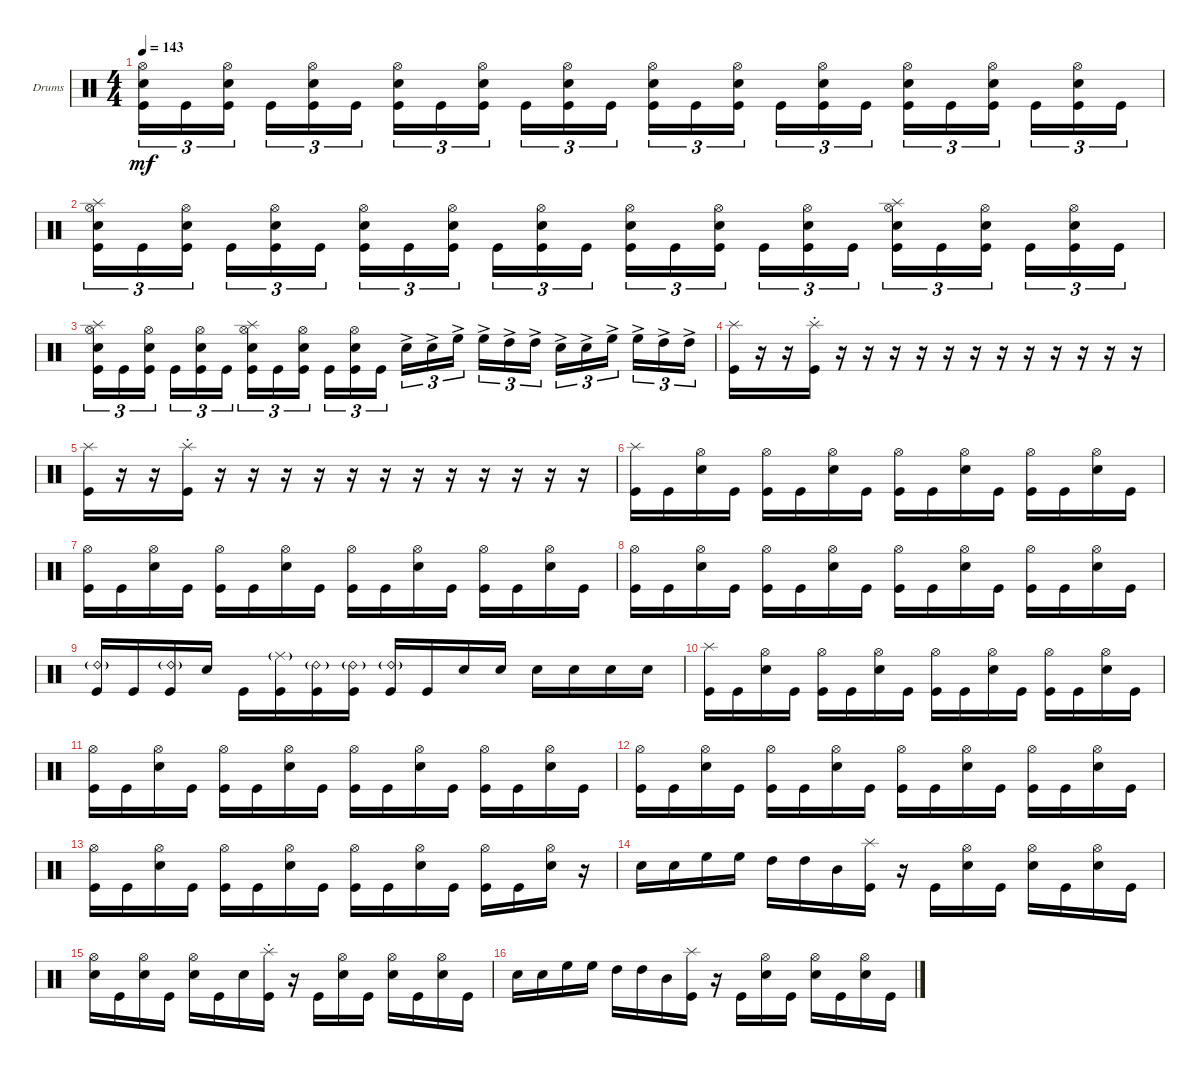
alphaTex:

\bracketExtendMode groupsimilarinstruments
\firstSystemTrackNameOrientation horizontal
\otherSystemsTrackNameOrientation horizontal
\track ("death drumz" "Drums") {instrument percussion}
\staff {score}
\articulation defaults
\ts (4 4)
\tempo 143
\clef neutral
\ks c
("Kick (hit)" "Snare (hit) 2" "Hi-Hat (open)").16{tu (3 2) dy mf} "Kick (hit)".16{tu (3 2)} ("Kick (hit)" "Snare (hit) 2" "Hi-Hat (open)").16{tu (3 2)} "Kick (hit)".16{tu (3 2)} ("Kick (hit)" "Snare (hit) 2" "Hi-Hat (open)").16{tu (3 2)} "Kick (hit)".16{tu (3 2)} ("Kick (hit)" "Snare (hit) 2" "Hi-Hat (open)").16{tu (3 2)} "Kick (hit)".16{tu (3 2)} ("Kick (hit)" "Snare (hit) 2" "Hi-Hat (open)").16{tu (3 2)} "Kick (hit)".16{tu (3 2)} ("Kick (hit)" "Snare (hit) 2" "Hi-Hat (open)").16{tu (3 2)} "Kick (hit)".16{tu (3 2)} ("Kick (hit)" "Snare (hit) 2" "Hi-Hat (open)").16{tu (3 2)} "Kick (hit)".16{tu (3 2)} ("Kick (hit)" "Snare (hit) 2" "Hi-Hat (open)").16{tu (3 2)} "Kick (hit)".16{tu (3 2)} ("Kick (hit)" "Snare (hit) 2" "Hi-Hat (open)").16{tu (3 2)} "Kick (hit)".16{tu (3 2)} ("Kick (hit)" "Snare (hit) 2" "Hi-Hat (open)").16{tu (3 2)} "Kick (hit)".16{tu (3 2)} ("Kick (hit)" "Snare (hit) 2" "Hi-Hat (open)").16{tu (3 2)} "Kick (hit)".16{tu (3 2)} ("Kick (hit)" "Snare (hit) 2" "Hi-Hat (open)").16{tu (3 2)} "Kick (hit)".16{tu (3 2)} |
("Kick (hit)" "Snare (hit) 2" "Hi-Hat (open)" "Splash (hit)").16{tu (3 2)} "Kick (hit)".16{tu (3 2)} ("Kick (hit)" "Snare (hit) 2" "Hi-Hat (open)").16{tu (3 2)} "Kick (hit)".16{tu (3 2)} ("Kick (hit)" "Snare (hit) 2" "Hi-Hat (open)").16{tu (3 2)} "Kick (hit)".16{tu (3 2)} ("Kick (hit)" "Snare (hit) 2" "Hi-Hat (open)").16{tu (3 2)} "Kick (hit)".16{tu (3 2)} ("Kick (hit)" "Snare (hit) 2" "Hi-Hat (open)").16{tu (3 2)} "Kick (hit)".16{tu (3 2)} ("Kick (hit)" "Snare (hit) 2" "Hi-Hat (open)").16{tu (3 2)} "Kick (hit)".16{tu (3 2)} ("Kick (hit)" "Snare (hit) 2" "Hi-Hat (open)").16{tu (3 2)} "Kick (hit)".16{tu (3 2)} ("Kick (hit)" "Snare (hit) 2" "Hi-Hat (open)").16{tu (3 2)} "Kick (hit)".16{tu (3 2)} ("Kick (hit)" "Snare (hit) 2" "Hi-Hat (open)").16{tu (3 2)} "Kick (hit)".16{tu (3 2)} ("Kick (hit)" "Snare (hit) 2" "Hi-Hat (open)" "Splash (hit)").16{tu (3 2)} "Kick (hit)".16{tu (3 2)} ("Kick (hit)" "Snare (hit) 2" "Hi-Hat (open)").16{tu (3 2)} "Kick (hit)".16{tu (3 2)} ("Kick (hit)" "Snare (hit) 2" "Hi-Hat (open)").16{tu (3 2)} "Kick (hit)".16{tu (3 2)} |
("Kick (hit)" "Snare (hit) 2" "Hi-Hat (open)" "Splash (hit)").16{tu (3 2)} "Kick (hit)".16{tu (3 2)} ("Kick (hit)" "Snare (hit) 2" "Hi-Hat (open)").16{tu (3 2)} "Kick (hit)".16{tu (3 2)} ("Kick (hit)" "Snare (hit) 2" "Hi-Hat (open)").16{tu (3 2)} "Kick (hit)".16{tu (3 2)} ("Kick (hit)" "Snare (hit) 2" "Hi-Hat (open)" "Splash (hit)").16{tu (3 2)} "Kick (hit)".16{tu (3 2)} ("Kick (hit)" "Snare (hit) 2" "Hi-Hat (open)").16{tu (3 2)} "Kick (hit)".16{tu (3 2)} ("Kick (hit)" "Snare (hit) 2" "Hi-Hat (open)").16{tu (3 2)} "Kick (hit)".16{tu (3 2)} "Snare (hit) 2"{ac}.16{tu (3 2)} "Snare (hit) 2"{ac}.16{tu (3 2)} "High Floor Tom (hit)"{ac}.16{tu (3 2)} "High Floor Tom (hit)"{ac}.16{tu (3 2)} "High Tom (hit)"{ac}.16{tu (3 2)} "High Tom (hit)"{ac}.16{tu (3 2)} "Snare (hit) 2"{ac}.16{tu (3 2)} "Snare (hit) 2"{ac}.16{tu (3 2)} "High Floor Tom (hit)"{ac}.16{tu (3 2)} "High Floor Tom (hit)"{ac}.16{tu (3 2)} "High Tom (hit)"{ac}.16{tu (3 2)} "High Tom (hit)"{ac}.16{tu (3 2)} |
("Kick (hit)" "Splash (hit)").16 r.16 r.16 ("Kick (hit)" "Splash (hit)"{st}).16 r.16 r.16 r.16 r.16 r.16 r.16 r.16 r.16 r.16 r.16 r.16 r.16 |
("Kick (hit)" "Splash (hit)").16 r.16 r.16 ("Kick (hit)" "Splash (hit)"{st}).16 r.16 r.16 r.16 r.16 r.16 r.16 r.16 r.16 r.16 r.16 r.16 r.16 |
("Kick (hit)" "Splash (hit)").16 "Kick (hit)".16 ("Snare (hit) 2" "Hi-Hat (open)").16 "Kick (hit)".16 ("Kick (hit)" "Hi-Hat (open)").16 "Kick (hit)".16 ("Snare (hit) 2" "Hi-Hat (open)").16 "Kick (hit)".16 ("Kick (hit)" "Hi-Hat (open)").16 "Kick (hit)".16 ("Snare (hit) 2" "Hi-Hat (open)").16 "Kick (hit)".16 ("Kick (hit)" "Hi-Hat (open)").16 "Kick (hit)".16 ("Snare (hit) 2" "Hi-Hat (open)").16 "Kick (hit)".16 |
("Kick (hit)" "Hi-Hat (open)").16 "Kick (hit)".16 ("Snare (hit) 2" "Hi-Hat (open)").16 "Kick (hit)".16 ("Kick (hit)" "Hi-Hat (open)").16 "Kick (hit)".16 ("Snare (hit) 2" "Hi-Hat (open)").16 "Kick (hit)".16 ("Kick (hit)" "Hi-Hat (open)").16 "Kick (hit)".16 ("Snare (hit) 2" "Hi-Hat (open)").16 "Kick (hit)".16 ("Kick (hit)" "Hi-Hat (open)").16 "Kick (hit)".16 ("Snare (hit) 2" "Hi-Hat (open)").16 "Kick (hit)".16 |
("Kick (hit)" "Hi-Hat (open)").16 "Kick (hit)".16 ("Snare (hit) 2" "Hi-Hat (open)").16 "Kick (hit)".16 ("Kick (hit)" "Hi-Hat (open)").16 "Kick (hit)".16 ("Snare (hit) 2" "Hi-Hat (open)").16 "Kick (hit)".16 ("Kick (hit)" "Hi-Hat (open)").16 "Kick (hit)".16 ("Snare (hit) 2" "Hi-Hat (open)").16 "Kick (hit)".16 ("Kick (hit)" "Hi-Hat (open)").16 "Kick (hit)".16 ("Snare (hit) 2" "Hi-Hat (open)").16 "Kick (hit)".16 |
("Ride (bell) 2"{g} "Kick (hit)").16 "Kick (hit)".16 ("Ride (bell) 2"{g} "Kick (hit)").16 "Snare (hit) 2".16 "Kick (hit)".16 ("Ride (middle)"{g} "Kick (hit)").16 ("Ride (bell) 2"{g} "Kick (hit)").16 ("Ride (bell) 2"{g} "Kick (hit)").16 ("Ride (bell) 2"{g} "Kick (hit)").16 "Kick (hit)".16 "Snare (hit) 2".16 "Snare (hit) 2".16 "Snare (hit) 2".16 "Snare (hit) 2".16 "Snare (hit) 2".16 "Snare (hit) 2".16 |
("Kick (hit)" "Splash (hit)").16 "Kick (hit)".16 ("Snare (hit) 2" "Hi-Hat (open)").16 "Kick (hit)".16 ("Kick (hit)" "Hi-Hat (open)").16 "Kick (hit)".16 ("Snare (hit) 2" "Hi-Hat (open)").16 "Kick (hit)".16 ("Kick (hit)" "Hi-Hat (open)").16 "Kick (hit)".16 ("Snare (hit) 2" "Hi-Hat (open)").16 "Kick (hit)".16 ("Kick (hit)" "Hi-Hat (open)").16 "Kick (hit)".16 ("Snare (hit) 2" "Hi-Hat (open)").16 "Kick (hit)".16 |
("Kick (hit)" "Hi-Hat (open)").16 "Kick (hit)".16 ("Snare (hit) 2" "Hi-Hat (open)").16 "Kick (hit)".16 ("Kick (hit)" "Hi-Hat (open)").16 "Kick (hit)".16 ("Snare (hit) 2" "Hi-Hat (open)").16 "Kick (hit)".16 ("Kick (hit)" "Hi-Hat (open)").16 "Kick (hit)".16 ("Snare (hit) 2" "Hi-Hat (open)").16 "Kick (hit)".16 ("Kick (hit)" "Hi-Hat (open)").16 "Kick (hit)".16 ("Snare (hit) 2" "Hi-Hat (open)").16 "Kick (hit)".16 |
("Kick (hit)" "Hi-Hat (open)").16 "Kick (hit)".16 ("Snare (hit) 2" "Hi-Hat (open)").16 "Kick (hit)".16 ("Kick (hit)" "Hi-Hat (open)").16 "Kick (hit)".16 ("Snare (hit) 2" "Hi-Hat (open)").16 "Kick (hit)".16 ("Kick (hit)" "Hi-Hat (open)").16 "Kick (hit)".16 ("Snare (hit) 2" "Hi-Hat (open)").16 "Kick (hit)".16 ("Kick (hit)" "Hi-Hat (open)").16 "Kick (hit)".16 ("Snare (hit) 2" "Hi-Hat (open)").16 "Kick (hit)".16 |
("Kick (hit)" "Hi-Hat (open)").16 "Kick (hit)".16 ("Snare (hit) 2" "Hi-Hat (open)").16 "Kick (hit)".16 ("Kick (hit)" "Hi-Hat (open)").16 "Kick (hit)".16 ("Snare (hit) 2" "Hi-Hat (open)").16 "Kick (hit)".16 ("Kick (hit)" "Hi-Hat (open)").16 "Kick (hit)".16 ("Snare (hit) 2" "Hi-Hat (open)").16 "Kick (hit)".16 ("Kick (hit)" "Hi-Hat (open)").16 "Kick (hit)".16 ("Snare (hit) 2" "Hi-Hat (open)").16 r.16 |
"Snare (hit) 2".16 "Snare (hit) 2".16 "High Floor Tom (hit)".16 "High Floor Tom (hit)".16 "High Tom (hit)".16 "High Tom (hit)".16 "Mid Tom (hit)".16 ("Kick (hit)" "Splash (hit)").16 r.16 "Kick (hit)".16 ("Snare (hit) 2" "Hi-Hat (open)").16 "Kick (hit)".16 ("Snare (hit) 2" "Hi-Hat (open)").16 "Kick (hit)".16 ("Snare (hit) 2" "Hi-Hat (open)").16 "Kick (hit)".16 |
("Snare (hit) 2" "Hi-Hat (open)").16 "Kick (hit)".16 ("Snare (hit) 2" "Hi-Hat (open)").16 "Kick (hit)".16 ("Snare (hit) 2" "Hi-Hat (open)").16 "Kick (hit)".16 "Snare (hit) 2".16 ("Kick (hit)" "Splash (hit)"{st}).16 r.16 "Kick (hit)".16 ("Snare (hit) 2" "Hi-Hat (open)").16 "Kick (hit)".16 ("Snare (hit) 2" "Hi-Hat (open)").16 "Kick (hit)".16 ("Snare (hit) 2" "Hi-Hat (open)").16 "Kick (hit)".16 |
"Snare (hit) 2".16 "Snare (hit) 2".16 "High Floor Tom (hit)".16 "High Floor Tom (hit)".16 "High Tom (hit)".16 "High Tom (hit)".16 "Mid Tom (hit)".16 ("Kick (hit)" "Splash (hit)").16 r.16 "Kick (hit)".16 ("Snare (hit) 2" "Hi-Hat (open)").16 "Kick (hit)".16 ("Snare (hit) 2" "Hi-Hat (open)").16 "Kick (hit)".16 ("Snare (hit) 2" "Hi-Hat (open)").16 "Kick (hit)".16
